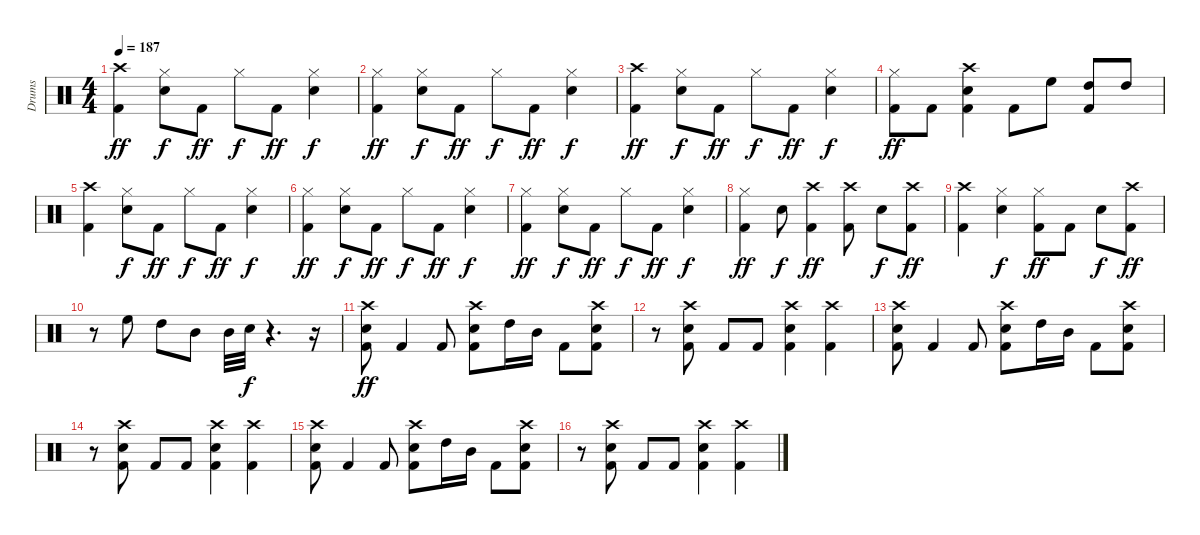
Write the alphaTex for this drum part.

\track ("Drums" "Drums") {instrument percussion}
\staff {score}
\articulation defaults
\ts (4 4)
\tempo 187
\clef neutral
\ks c
("Crash high (hit)" "Kick (hit) 2").4{dy ff} ("Hi-Hat (closed)" "Electric Snare (hit)").8{dy f} "Kick (hit) 2".8{dy ff} "Hi-Hat (closed)".8{dy f} "Kick (hit) 2".8{dy ff} ("Hi-Hat (closed)" "Electric Snare (hit)").4{dy f} |
("Hi-Hat (closed)" "Kick (hit) 2").4{dy ff} ("Hi-Hat (closed)" "Electric Snare (hit)").8{dy f} "Kick (hit) 2".8{dy ff} "Hi-Hat (closed)".8{dy f} "Kick (hit) 2".8{dy ff} ("Hi-Hat (closed)" "Electric Snare (hit)").4{dy f} |
("Crash high (hit)" "Kick (hit) 2").4{dy ff} ("Hi-Hat (closed)" "Electric Snare (hit)").8{dy f} "Kick (hit) 2".8{dy ff} "Hi-Hat (closed)".8{dy f} "Kick (hit) 2".8{dy ff} ("Hi-Hat (closed)" "Electric Snare (hit)").4{dy f} |
("Hi-Hat (closed)" "Kick (hit) 2").8{dy ff} "Kick (hit) 2".8 ("Crash high (hit)" "Electric Snare (hit)" "Kick (hit) 2").4 "Kick (hit) 2".8 "High Floor Tom (hit)".8 ("High Tom (hit)" "Kick (hit) 2").8 "High Tom (hit)".8 |
("Crash high (hit)" "Kick (hit) 2").4 ("Hi-Hat (closed)" "Electric Snare (hit)").8{dy f} "Kick (hit) 2".8{dy ff} "Hi-Hat (closed)".8{dy f} "Kick (hit) 2".8{dy ff} ("Hi-Hat (closed)" "Electric Snare (hit)").4{dy f} |
("Hi-Hat (closed)" "Kick (hit) 2").4{dy ff} ("Hi-Hat (closed)" "Electric Snare (hit)").8{dy f} "Kick (hit) 2".8{dy ff} "Hi-Hat (closed)".8{dy f} "Kick (hit) 2".8{dy ff} ("Hi-Hat (closed)" "Electric Snare (hit)").4{dy f} |
("Hi-Hat (closed)" "Kick (hit) 2").4{dy ff} ("Hi-Hat (closed)" "Electric Snare (hit)").8{dy f} "Kick (hit) 2".8{dy ff} "Hi-Hat (closed)".8{dy f} "Kick (hit) 2".8{dy ff} ("Hi-Hat (closed)" "Electric Snare (hit)").4{dy f} |
("Hi-Hat (closed)" "Kick (hit) 2").4{dy ff} "Electric Snare (hit)".8{dy f} ("Crash high (hit)" "Kick (hit) 2").4{dy ff} ("Crash high (hit)" "Kick (hit) 2").8 "Electric Snare (hit)".8{dy f} ("Crash high (hit)" "Kick (hit) 2").8{dy ff} |
("Crash high (hit)" "Kick (hit) 2").4 ("Hi-Hat (closed)" "Electric Snare (hit)").4{dy f} ("Hi-Hat (closed)" "Kick (hit) 2").8{dy ff} "Kick (hit) 2".8 "Electric Snare (hit)".8{dy f} ("Crash high (hit)" "Kick (hit) 2").8{dy ff} |
r.8 "High Floor Tom (hit)".8 "High Tom (hit)".8 "Mid Tom (hit)".8 "Mid Tom (hit)".32 "Electric Snare (hit)".32{dy f} r.4{d} r.16 |
("Crash high (hit)" "Electric Snare (hit)" "Kick (hit) 2").8{dy ff} "Kick (hit) 2".4 "Kick (hit) 2".8 ("Crash high (hit)" "Electric Snare (hit)" "Kick (hit) 2").8 "High Tom (hit)".16 "Mid Tom (hit)".16 "Kick (hit) 2".8 ("Crash high (hit)" "Electric Snare (hit)" "Kick (hit) 2").8 |
r.8 ("Crash high (hit)" "Electric Snare (hit)" "Kick (hit) 2").8 "Kick (hit) 2".8 "Kick (hit) 2".8 ("Crash high (hit)" "Electric Snare (hit)" "Kick (hit) 2").4 ("Crash high (hit)" "Kick (hit) 2").4 |
("Crash high (hit)" "Electric Snare (hit)" "Kick (hit) 2").8 "Kick (hit) 2".4 "Kick (hit) 2".8 ("Crash high (hit)" "Electric Snare (hit)" "Kick (hit) 2").8 "High Tom (hit)".16 "Mid Tom (hit)".16 "Kick (hit) 2".8 ("Crash high (hit)" "Electric Snare (hit)" "Kick (hit) 2").8 |
r.8 ("Crash high (hit)" "Electric Snare (hit)" "Kick (hit) 2").8 "Kick (hit) 2".8 "Kick (hit) 2".8 ("Crash high (hit)" "Electric Snare (hit)" "Kick (hit) 2").4 ("Crash high (hit)" "Kick (hit) 2").4 |
("Crash high (hit)" "Electric Snare (hit)" "Kick (hit) 2").8 "Kick (hit) 2".4 "Kick (hit) 2".8 ("Crash high (hit)" "Electric Snare (hit)" "Kick (hit) 2").8 "High Tom (hit)".16 "Mid Tom (hit)".16 "Kick (hit) 2".8 ("Crash high (hit)" "Electric Snare (hit)" "Kick (hit) 2").8 |
r.8 ("Crash high (hit)" "Electric Snare (hit)" "Kick (hit) 2").8 "Kick (hit) 2".8 "Kick (hit) 2".8 ("Crash high (hit)" "Electric Snare (hit)" "Kick (hit) 2").4 ("Crash high (hit)" "Kick (hit) 2").4
